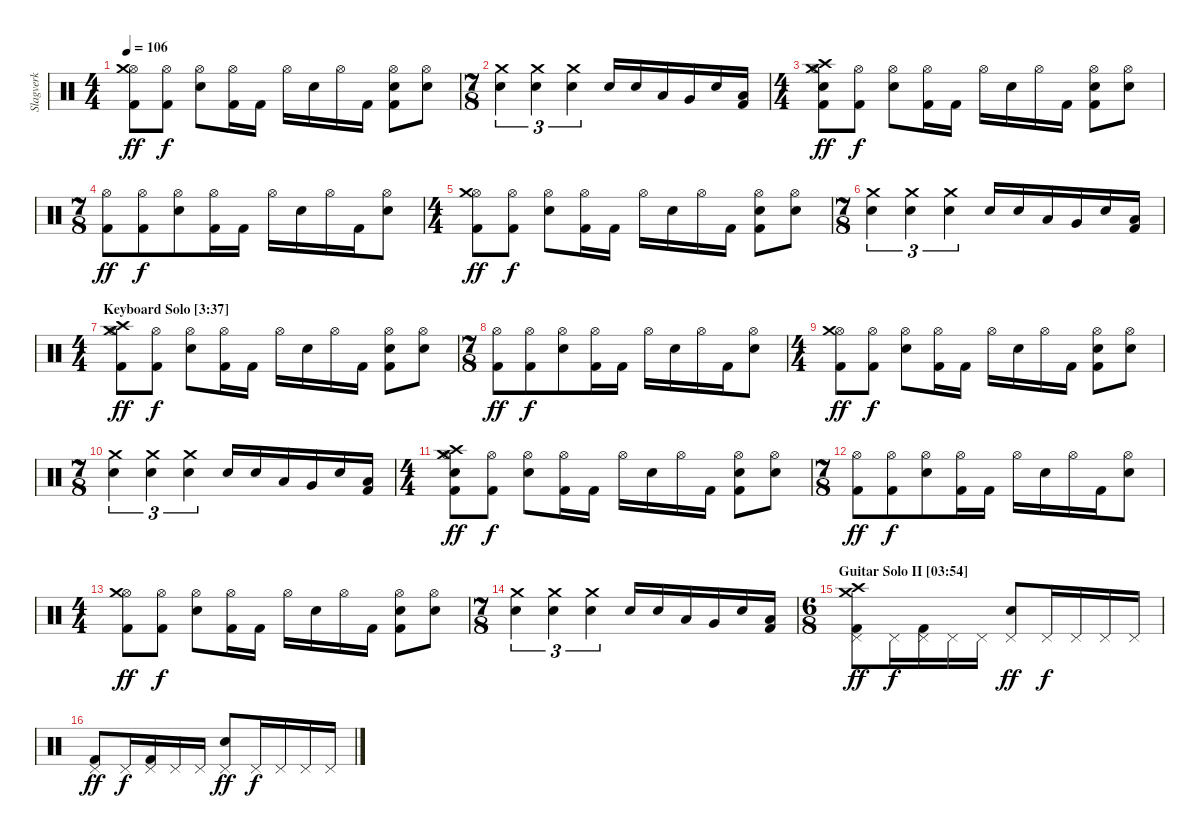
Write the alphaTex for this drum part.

\track ("Slagverk" "Slagverk") {instrument percussion}
\staff {score}
\articulation defaults
\ts (4 4)
\tempo 106
\clef neutral
\ks c
("Hi-Hat (open)" "Crash medium (hit)" "Kick (hit) 2").8{dy ff} ("Hi-Hat (open)" "Kick (hit) 2").8{dy f} ("Hi-Hat (open)" "Electric Snare (hit)").8 ("Hi-Hat (open)" "Kick (hit) 2").16 "Kick (hit) 2".16 "Hi-Hat (open)".16 "Electric Snare (hit)".16 "Hi-Hat (open)".16 "Kick (hit) 2".16 ("Hi-Hat (open)" "Electric Snare (hit)" "Kick (hit) 2").8 ("Hi-Hat (open)" "Electric Snare (hit)").8 |
\ts (7 8)
("Crash medium (hit)" "Electric Snare (hit)").4{tu (3 2)} ("Crash medium (hit)" "Electric Snare (hit)").4{tu (3 2)} ("Crash medium (hit)" "Electric Snare (hit)").4{tu (3 2)} "Electric Snare (hit)".16 "Electric Snare (hit)".16 "Low Tom (hit)".16 "Very Low Tom (hit)".16 "Electric Snare (hit)".16 ("Low Floor Tom (hit)" "Kick (hit) 2").16 |
\ts (4 4)
("Hi-Hat (open)" "Crash medium (hit)" "Crash high (hit)" "Electric Snare (hit)" "Kick (hit) 2").8{dy ff} ("Hi-Hat (open)" "Kick (hit) 2").8{dy f} ("Hi-Hat (open)" "Electric Snare (hit)").8 ("Hi-Hat (open)" "Kick (hit) 2").16 "Kick (hit) 2".16 "Hi-Hat (open)".16 "Electric Snare (hit)".16 "Hi-Hat (open)".16 "Kick (hit) 2".16 ("Hi-Hat (open)" "Electric Snare (hit)" "Kick (hit) 2").8 ("Hi-Hat (open)" "Electric Snare (hit)").8 |
\ts (7 8)
("Hi-Hat (open)" "Kick (hit) 2").8{dy ff} ("Hi-Hat (open)" "Kick (hit) 2").8{dy f} ("Hi-Hat (open)" "Electric Snare (hit)").8 ("Hi-Hat (open)" "Kick (hit) 2").16 "Kick (hit) 2".16 "Hi-Hat (open)".16 "Electric Snare (hit)".16 "Hi-Hat (open)".16 "Kick (hit) 2".16 ("Hi-Hat (open)" "Electric Snare (hit)").8 |
\ts (4 4)
("Hi-Hat (open)" "Crash medium (hit)" "Kick (hit) 2").8{dy ff} ("Hi-Hat (open)" "Kick (hit) 2").8{dy f} ("Hi-Hat (open)" "Electric Snare (hit)").8 ("Hi-Hat (open)" "Kick (hit) 2").16 "Kick (hit) 2".16 "Hi-Hat (open)".16 "Electric Snare (hit)".16 "Hi-Hat (open)".16 "Kick (hit) 2".16 ("Hi-Hat (open)" "Electric Snare (hit)" "Kick (hit) 2").8 ("Hi-Hat (open)" "Electric Snare (hit)").8 |
\ts (7 8)
("Crash medium (hit)" "Electric Snare (hit)").4{tu (3 2)} ("Crash medium (hit)" "Electric Snare (hit)").4{tu (3 2)} ("Crash medium (hit)" "Electric Snare (hit)").4{tu (3 2)} "Electric Snare (hit)".16 "Electric Snare (hit)".16 "Low Tom (hit)".16 "Very Low Tom (hit)".16 "Electric Snare (hit)".16 ("Low Floor Tom (hit)" "Kick (hit) 2").16 |
\ts (4 4)
\section ("" "Keyboard Solo [3:37]")
("Hi-Hat (open)" "Crash high (hit)" "Crash medium (hit)" "Kick (hit) 2").8{dy ff} ("Hi-Hat (open)" "Kick (hit) 2").8{dy f} ("Hi-Hat (open)" "Electric Snare (hit)").8 ("Hi-Hat (open)" "Kick (hit) 2").16 "Kick (hit) 2".16 "Hi-Hat (open)".16 "Electric Snare (hit)".16 "Hi-Hat (open)".16 "Kick (hit) 2".16 ("Hi-Hat (open)" "Electric Snare (hit)" "Kick (hit) 2").8 ("Hi-Hat (open)" "Electric Snare (hit)").8 |
\ts (7 8)
("Hi-Hat (open)" "Kick (hit) 2").8{dy ff} ("Hi-Hat (open)" "Kick (hit) 2").8{dy f} ("Hi-Hat (open)" "Electric Snare (hit)").8 ("Hi-Hat (open)" "Kick (hit) 2").16 "Kick (hit) 2".16 "Hi-Hat (open)".16 "Electric Snare (hit)".16 "Hi-Hat (open)".16 "Kick (hit) 2".16 ("Hi-Hat (open)" "Electric Snare (hit)").8 |
\ts (4 4)
("Hi-Hat (open)" "Crash medium (hit)" "Kick (hit) 2").8{dy ff} ("Hi-Hat (open)" "Kick (hit) 2").8{dy f} ("Hi-Hat (open)" "Electric Snare (hit)").8 ("Hi-Hat (open)" "Kick (hit) 2").16 "Kick (hit) 2".16 "Hi-Hat (open)".16 "Electric Snare (hit)".16 "Hi-Hat (open)".16 "Kick (hit) 2".16 ("Hi-Hat (open)" "Electric Snare (hit)" "Kick (hit) 2").8 ("Hi-Hat (open)" "Electric Snare (hit)").8 |
\ts (7 8)
("Crash medium (hit)" "Electric Snare (hit)").4{tu (3 2)} ("Crash medium (hit)" "Electric Snare (hit)").4{tu (3 2)} ("Crash medium (hit)" "Electric Snare (hit)").4{tu (3 2)} "Electric Snare (hit)".16 "Electric Snare (hit)".16 "Low Tom (hit)".16 "Very Low Tom (hit)".16 "Electric Snare (hit)".16 ("Low Floor Tom (hit)" "Kick (hit) 2").16 |
\ts (4 4)
("Hi-Hat (open)" "Crash medium (hit)" "Crash high (hit)" "Electric Snare (hit)" "Kick (hit) 2").8{dy ff} ("Hi-Hat (open)" "Kick (hit) 2").8{dy f} ("Hi-Hat (open)" "Electric Snare (hit)").8 ("Hi-Hat (open)" "Kick (hit) 2").16 "Kick (hit) 2".16 "Hi-Hat (open)".16 "Electric Snare (hit)".16 "Hi-Hat (open)".16 "Kick (hit) 2".16 ("Hi-Hat (open)" "Electric Snare (hit)" "Kick (hit) 2").8 ("Hi-Hat (open)" "Electric Snare (hit)").8 |
\ts (7 8)
("Hi-Hat (open)" "Kick (hit) 2").8{dy ff} ("Hi-Hat (open)" "Kick (hit) 2").8{dy f} ("Hi-Hat (open)" "Electric Snare (hit)").8 ("Hi-Hat (open)" "Kick (hit) 2").16 "Kick (hit) 2".16 "Hi-Hat (open)".16 "Electric Snare (hit)".16 "Hi-Hat (open)".16 "Kick (hit) 2".16 ("Hi-Hat (open)" "Electric Snare (hit)").8 |
\ts (4 4)
("Hi-Hat (open)" "Crash medium (hit)" "Kick (hit) 2").8{dy ff} ("Hi-Hat (open)" "Kick (hit) 2").8{dy f} ("Hi-Hat (open)" "Electric Snare (hit)").8 ("Hi-Hat (open)" "Kick (hit) 2").16 "Kick (hit) 2".16 "Hi-Hat (open)".16 "Electric Snare (hit)".16 "Hi-Hat (open)".16 "Kick (hit) 2".16 ("Hi-Hat (open)" "Electric Snare (hit)" "Kick (hit) 2").8 ("Hi-Hat (open)" "Electric Snare (hit)").8 |
\ts (7 8)
("Crash medium (hit)" "Electric Snare (hit)").4{tu (3 2)} ("Crash medium (hit)" "Electric Snare (hit)").4{tu (3 2)} ("Crash medium (hit)" "Electric Snare (hit)").4{tu (3 2)} "Electric Snare (hit)".16 "Electric Snare (hit)".16 "Low Tom (hit)".16 "Very Low Tom (hit)".16 "Electric Snare (hit)".16 ("Low Floor Tom (hit)" "Kick (hit) 2").16 |
\ts (6 8)
\section ("" "Guitar Solo II [03:54]")
("Pedal Hi-Hat (hit)" "Crash medium (hit)" "Crash high (hit)" "Kick (hit) 2").8{dy ff} "Pedal Hi-Hat (hit)".16{dy f} ("Pedal Hi-Hat (hit)" "Kick (hit) 2").16 "Pedal Hi-Hat (hit)".16 "Pedal Hi-Hat (hit)".16 ("Pedal Hi-Hat (hit)" "Electric Snare (hit)").8{dy ff} "Pedal Hi-Hat (hit)".16{dy f} "Pedal Hi-Hat (hit)".16 "Pedal Hi-Hat (hit)".16 "Pedal Hi-Hat (hit)".16 |
("Pedal Hi-Hat (hit)" "Kick (hit) 2").8{dy ff} "Pedal Hi-Hat (hit)".16{dy f} ("Pedal Hi-Hat (hit)" "Kick (hit) 2").16 "Pedal Hi-Hat (hit)".16 "Pedal Hi-Hat (hit)".16 ("Pedal Hi-Hat (hit)" "Electric Snare (hit)").8{dy ff} "Pedal Hi-Hat (hit)".16{dy f} "Pedal Hi-Hat (hit)".16 "Pedal Hi-Hat (hit)".16 "Pedal Hi-Hat (hit)".16
